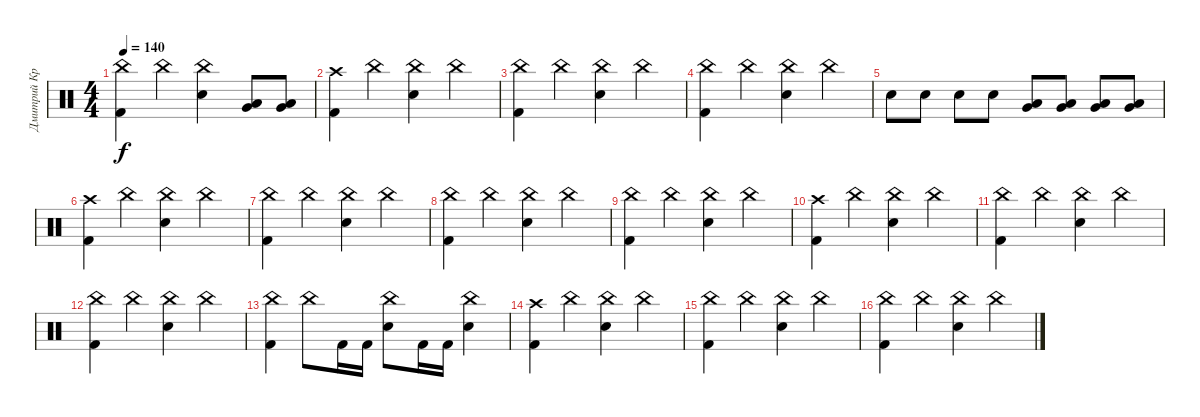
\track ("Дмитрий Кривенков" "Дмитрий Кр") {instrument percussion}
\staff {score}
\articulation defaults
\ts (4 4)
\tempo 140
\clef neutral
\ks c
("China (hit)" "Kick (hit) 2").4{dy f} "China (hit)".4 ("China (hit)" "Electric Snare (hit)").4 ("Very Low Tom (hit)" "Low Floor Tom (hit)").8 ("Very Low Tom (hit)" "Low Floor Tom (hit)").8 |
("Crash high (hit)" "Kick (hit) 2").4 "China (hit)".4 ("China (hit)" "Electric Snare (hit)").4 "China (hit)".4 |
("China (hit)" "Kick (hit) 2").4 "China (hit)".4 ("China (hit)" "Electric Snare (hit)").4 "China (hit)".4 |
("China (hit)" "Kick (hit) 2").4 "China (hit)".4 ("China (hit)" "Electric Snare (hit)").4 "China (hit)".4 |
"Electric Snare (hit)".8 "Electric Snare (hit)".8 "Electric Snare (hit)".8 "Electric Snare (hit)".8 ("Low Tom (hit)" "Very Low Tom (hit)").8 ("Low Tom (hit)" "Very Low Tom (hit)").8 ("Very Low Tom (hit)" "Low Floor Tom (hit)").8 ("Very Low Tom (hit)" "Low Floor Tom (hit)").8 |
("Crash high (hit)" "Kick (hit) 2").4{volume 14} "China (hit)".4 ("China (hit)" "Electric Snare (hit)").4 "China (hit)".4 |
("China (hit)" "Kick (hit) 2").4 "China (hit)".4 ("China (hit)" "Electric Snare (hit)").4 "China (hit)".4 |
("China (hit)" "Kick (hit) 2").4 "China (hit)".4 ("China (hit)" "Electric Snare (hit)").4 "China (hit)".4 |
("China (hit)" "Kick (hit) 2").4 "China (hit)".4 ("China (hit)" "Electric Snare (hit)").4 "China (hit)".4 |
("Crash high (hit)" "Kick (hit) 2").4{volume 10} "China (hit)".4 ("China (hit)" "Electric Snare (hit)").4 "China (hit)".4 |
("China (hit)" "Kick (hit) 2").4 "China (hit)".4 ("China (hit)" "Electric Snare (hit)").4 "China (hit)".4 |
("China (hit)" "Kick (hit) 2").4 "China (hit)".4 ("China (hit)" "Electric Snare (hit)").4 "China (hit)".4 |
("China (hit)" "Kick (hit) 2").4 "China (hit)".8 "Kick (hit) 2".16 "Kick (hit) 2".16 ("China (hit)" "Electric Snare (hit)").8 "Kick (hit) 2".16 "Kick (hit) 2".16 ("China (hit)" "Electric Snare (hit)").4 |
("Crash high (hit)" "Kick (hit) 2").4{volume 5} "China (hit)".4 ("China (hit)" "Electric Snare (hit)").4 "China (hit)".4 |
("China (hit)" "Kick (hit) 2").4 "China (hit)".4 ("China (hit)" "Electric Snare (hit)").4 "China (hit)".4 |
("China (hit)" "Kick (hit) 2").4 "China (hit)".4 ("China (hit)" "Electric Snare (hit)").4 "China (hit)".4
